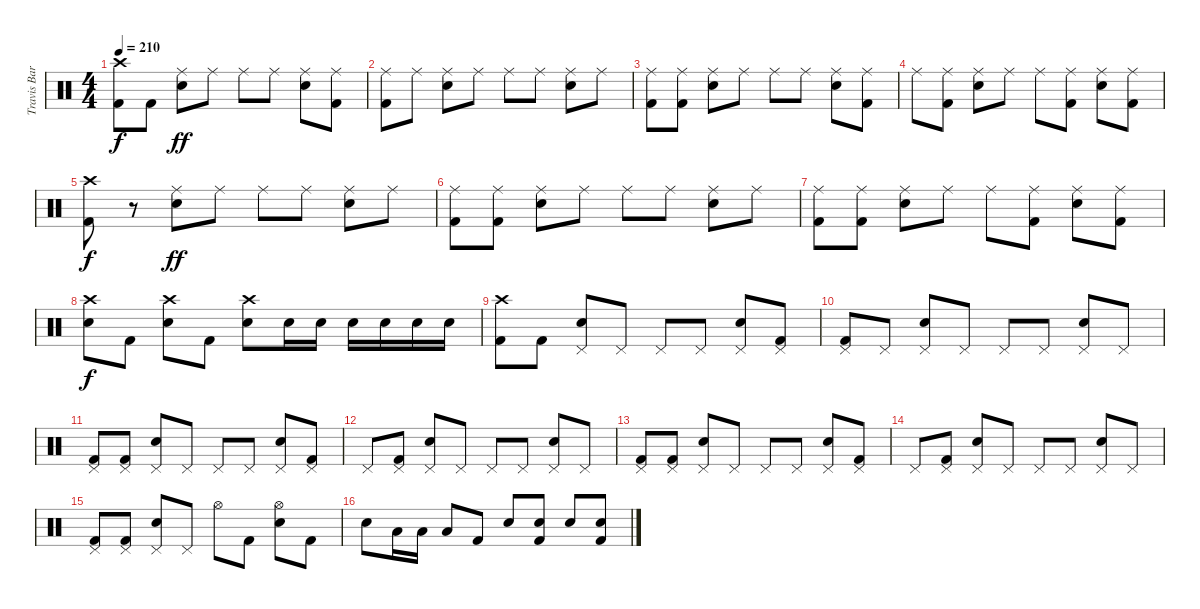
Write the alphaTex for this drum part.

\track ("Travis Barker" "Travis Bar") {instrument percussion}
\staff {score}
\articulation defaults
\ts (4 4)
\tempo 210
\clef neutral
\ks c
("Crash high (hit)" "Kick (hit) 2").8{dy f} "Kick (hit) 2".8 ("Ride (middle)" "Electric Snare (hit)").8{dy ff} "Ride (middle)".8 "Ride (middle)".8 "Ride (middle)".8 ("Ride (middle)" "Electric Snare (hit)").8 ("Ride (middle)" "Kick (hit) 2").8 |
("Ride (middle)" "Kick (hit) 2").8 "Ride (middle)".8 ("Ride (middle)" "Electric Snare (hit)").8 "Ride (middle)".8 "Ride (middle)".8 "Ride (middle)".8 ("Ride (middle)" "Electric Snare (hit)").8 "Ride (middle)".8 |
("Ride (middle)" "Kick (hit) 2").8 ("Ride (middle)" "Kick (hit) 2").8 ("Ride (middle)" "Electric Snare (hit)").8 "Ride (middle)".8 "Ride (middle)".8 "Ride (middle)".8 ("Ride (middle)" "Electric Snare (hit)").8 ("Ride (middle)" "Kick (hit) 2").8 |
"Ride (middle)".8 ("Ride (middle)" "Kick (hit) 2").8 ("Ride (middle)" "Electric Snare (hit)").8 "Ride (middle)".8 "Ride (middle)".8 ("Ride (middle)" "Kick (hit) 2").8 ("Ride (middle)" "Electric Snare (hit)").8 ("Ride (middle)" "Kick (hit) 2").8 |
("Crash high (hit)" "Kick (hit) 2").8{dy f} r.8 ("Ride (middle)" "Electric Snare (hit)").8{dy ff} "Ride (middle)".8 "Ride (middle)".8 "Ride (middle)".8 ("Ride (middle)" "Electric Snare (hit)").8 "Ride (middle)".8 |
("Ride (middle)" "Kick (hit) 2").8 ("Ride (middle)" "Kick (hit) 2").8 ("Ride (middle)" "Electric Snare (hit)").8 "Ride (middle)".8 "Ride (middle)".8 "Ride (middle)".8 ("Ride (middle)" "Electric Snare (hit)").8 "Ride (middle)".8 |
("Ride (middle)" "Kick (hit) 2").8 ("Ride (middle)" "Kick (hit) 2").8 ("Ride (middle)" "Electric Snare (hit)").8 "Ride (middle)".8 "Ride (middle)".8 ("Ride (middle)" "Kick (hit) 2").8 ("Ride (middle)" "Electric Snare (hit)").8 ("Ride (middle)" "Kick (hit) 2").8 |
("Crash high (hit)" "Electric Snare (hit)").8{dy f} "Kick (hit) 2".8 ("Crash high (hit)" "Electric Snare (hit)").8 "Kick (hit) 2".8 ("Crash high (hit)" "Electric Snare (hit)").8 "Electric Snare (hit)".16 "Electric Snare (hit)".16 "Electric Snare (hit)".16 "Electric Snare (hit)".16 "Electric Snare (hit)".16 "Electric Snare (hit)".16 |
("Crash high (hit)" "Kick (hit) 2").8 "Kick (hit) 2".8 ("Pedal Hi-Hat (hit)" "Electric Snare (hit)").8 "Pedal Hi-Hat (hit)".8 "Pedal Hi-Hat (hit)".8 "Pedal Hi-Hat (hit)".8 ("Pedal Hi-Hat (hit)" "Electric Snare (hit)").8 ("Pedal Hi-Hat (hit)" "Kick (hit) 2").8 |
("Pedal Hi-Hat (hit)" "Kick (hit) 2").8 "Pedal Hi-Hat (hit)".8 ("Pedal Hi-Hat (hit)" "Electric Snare (hit)").8 "Pedal Hi-Hat (hit)".8 "Pedal Hi-Hat (hit)".8 "Pedal Hi-Hat (hit)".8 ("Pedal Hi-Hat (hit)" "Electric Snare (hit)").8 "Pedal Hi-Hat (hit)".8 |
("Pedal Hi-Hat (hit)" "Kick (hit) 2").8 ("Pedal Hi-Hat (hit)" "Kick (hit) 2").8 ("Pedal Hi-Hat (hit)" "Electric Snare (hit)").8 "Pedal Hi-Hat (hit)".8 "Pedal Hi-Hat (hit)".8 "Pedal Hi-Hat (hit)".8 ("Pedal Hi-Hat (hit)" "Electric Snare (hit)").8 ("Pedal Hi-Hat (hit)" "Kick (hit) 2").8 |
"Pedal Hi-Hat (hit)".8 ("Pedal Hi-Hat (hit)" "Kick (hit) 2").8 ("Pedal Hi-Hat (hit)" "Electric Snare (hit)").8 "Pedal Hi-Hat (hit)".8 "Pedal Hi-Hat (hit)".8 "Pedal Hi-Hat (hit)".8 ("Pedal Hi-Hat (hit)" "Electric Snare (hit)").8 "Pedal Hi-Hat (hit)".8 |
("Pedal Hi-Hat (hit)" "Kick (hit) 2").8 ("Pedal Hi-Hat (hit)" "Kick (hit) 2").8 ("Pedal Hi-Hat (hit)" "Electric Snare (hit)").8 "Pedal Hi-Hat (hit)".8 "Pedal Hi-Hat (hit)".8 "Pedal Hi-Hat (hit)".8 ("Pedal Hi-Hat (hit)" "Electric Snare (hit)").8 ("Pedal Hi-Hat (hit)" "Kick (hit) 2").8 |
"Pedal Hi-Hat (hit)".8 ("Pedal Hi-Hat (hit)" "Kick (hit) 2").8 ("Pedal Hi-Hat (hit)" "Electric Snare (hit)").8 "Pedal Hi-Hat (hit)".8 "Pedal Hi-Hat (hit)".8 "Pedal Hi-Hat (hit)".8 ("Pedal Hi-Hat (hit)" "Electric Snare (hit)").8 "Pedal Hi-Hat (hit)".8 |
("Pedal Hi-Hat (hit)" "Kick (hit) 2").8 ("Pedal Hi-Hat (hit)" "Kick (hit) 2").8 ("Pedal Hi-Hat (hit)" "Electric Snare (hit)").8 "Pedal Hi-Hat (hit)".8 "Hi-Hat (open)".8 "Kick (hit) 2".8 ("Hi-Hat (open)" "Electric Snare (hit)").8 "Kick (hit) 2".8 |
"Electric Snare (hit)".8 "Low Tom (hit)".16 "Low Tom (hit)".16 "Low Tom (hit)".8 "Kick (hit) 2".8 "Electric Snare (hit)".8 ("Snare (hit)"{x} "Kick (hit) 2").8 "Electric Snare (hit)".8 ("Snare (hit)"{x} "Kick (hit) 2").8
